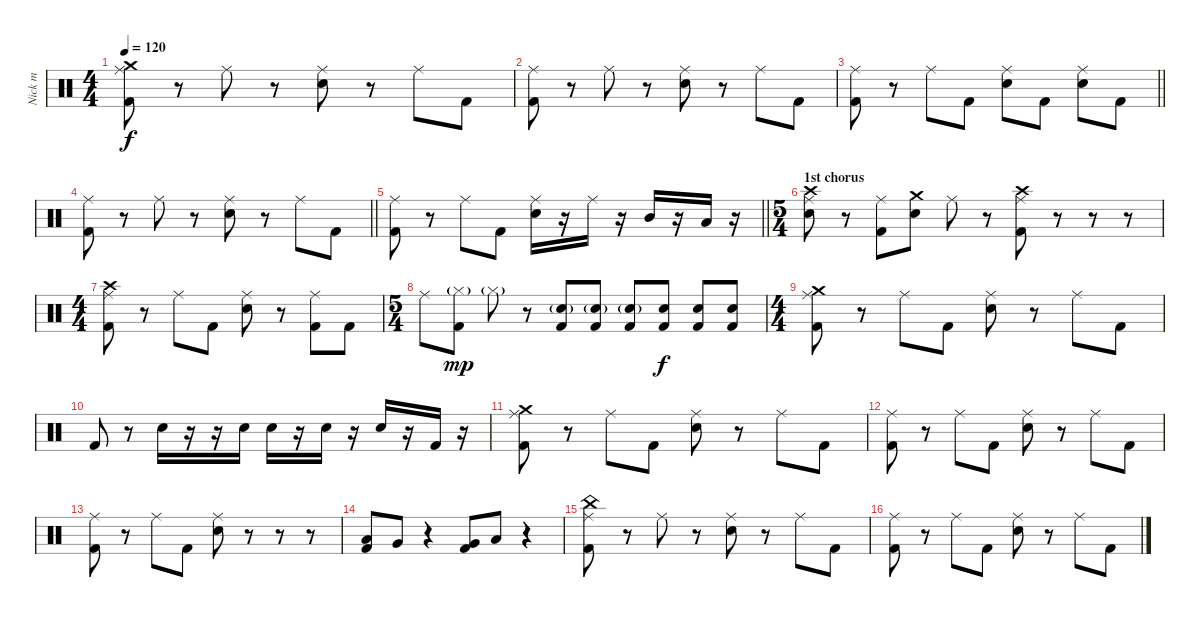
\track ("Nick m" "Nick m") {instrument percussion}
\staff {score}
\articulation defaults
\ts (4 4)
\tempo 120
\clef neutral
\ks c
("Crash medium (hit)" "Ride (middle)" "Kick (hit) 2").8{dy f} r.8 "Ride (middle)".8 r.8 ("Ride (middle)" "Snare (hit) 2").8 r.8 "Ride (middle)".8 "Kick (hit) 2".8 |
("Ride (middle)" "Kick (hit) 2").8 r.8 "Ride (middle)".8 r.8 ("Ride (middle)" "Snare (hit) 2").8 r.8 "Ride (middle)".8 "Kick (hit) 2".8 |
\barLineRight lightlight
("Ride (middle)" "Kick (hit) 2").8 r.8 "Ride (middle)".8 "Kick (hit) 2".8 ("Ride (middle)" "Snare (hit) 2").8 "Kick (hit) 2".8 ("Ride (middle)" "Snare (hit) 2").8 "Kick (hit) 2".8 |
\barLineRight lightlight
("Ride (middle)" "Kick (hit) 2").8 r.8 "Ride (middle)".8 r.8 ("Ride (middle)" "Snare (hit) 2").8 r.8 "Ride (middle)".8 "Kick (hit) 2".8 |
\barLineRight lightlight
("Ride (middle)" "Kick (hit) 2").8 r.8 "Ride (middle)".8 "Kick (hit) 2".8 ("Ride (middle)" "Snare (hit) 2").16 r.16 "Ride (middle)".16 r.16 "Mid Tom (hit)".16 r.16 "Low Tom (hit)".16 r.16 |
\ts (5 4)
\section ("" "1st chorus")
("Ride (middle)" "Crash high (hit)" "Snare (hit) 2").8 r.8 ("Ride (middle)" "Kick (hit) 2").8 ("Crash medium (hit)" "Snare (hit) 2").8 "Ride (middle)".8 r.8 ("Ride (middle)" "Crash high (hit)" "Kick (hit) 2").8 r.8 r.8 r.8 |
\ts (4 4)
("Ride (middle)" "Crash high (hit)" "Kick (hit) 2").8 r.8 "Ride (middle)".8 "Kick (hit) 2".8 ("Ride (middle)" "Snare (hit) 2").8 r.8 ("Ride (middle)" "Kick (hit) 2").8 "Kick (hit) 2".8 |
\ts (5 4)
"Ride (middle)".8 ("Hi-Hat (closed)"{g} "Kick (hit) 2").8{dy mp} "Hi-Hat (closed)"{g}.8 r.8 ("Snare (hit) 2"{g} "Kick (hit) 2").8 ("Snare (hit) 2"{g} "Kick (hit) 2").8 ("Snare (hit) 2"{g} "Kick (hit) 2").8 ("Snare (hit) 2" "Kick (hit) 2").8{dy f} ("Snare (hit) 2" "Kick (hit) 2").8 ("Snare (hit) 2" "Kick (hit) 2").8 |
\ts (4 4)
("Ride (middle)" "Crash medium (hit)" "Kick (hit) 2").8 r.8 "Ride (middle)".8 "Kick (hit) 2".8 ("Ride (middle)" "Snare (hit) 2").8 r.8 "Ride (middle)".8 "Kick (hit) 2".8 |
"Kick (hit) 2".8 r.8 "Snare (hit) 2".16 r.16 r.16 "Snare (hit) 2".16 "Snare (hit) 2".16 r.16 "Snare (hit) 2".16 r.16 "Snare (hit) 2".16 r.16 "Kick (hit) 2".16 r.16 |
("Crash medium (hit)" "Ride (middle)" "Kick (hit) 2").8 r.8 "Ride (middle)".8 "Kick (hit) 2".8 ("Ride (middle)" "Snare (hit) 2").8 r.8 "Ride (middle)".8 "Kick (hit) 2".8 |
("Ride (middle)" "Kick (hit) 2").8 r.8 "Ride (middle)".8 "Kick (hit) 2".8 ("Ride (middle)" "Snare (hit) 2").8 r.8 "Ride (middle)".8 "Kick (hit) 2".8 |
("Ride (middle)" "Kick (hit) 2").8 r.8 "Ride (middle)".8 "Kick (hit) 2".8 ("Ride (middle)" "Snare (hit) 2").8 r.8 r.8 r.8 |
("Low Tom (hit)" "Kick (hit) 2").8 "Very Low Tom (hit)".8 r.4 ("Very Low Tom (hit)" "Kick (hit) 2").8 "Low Floor Tom (hit)".8 r.4 |
("Ride (middle)" "China (hit)" "Kick (hit) 2").8 r.8 "Ride (middle)".8 r.8 ("Ride (middle)" "Snare (hit) 2").8 r.8 "Ride (middle)".8 "Kick (hit) 2".8 |
("Ride (middle)" "Kick (hit) 2").8 r.8 "Ride (middle)".8 "Kick (hit) 2".8 ("Ride (middle)" "Snare (hit) 2").8 r.8 "Ride (middle)".8 "Kick (hit) 2".8
